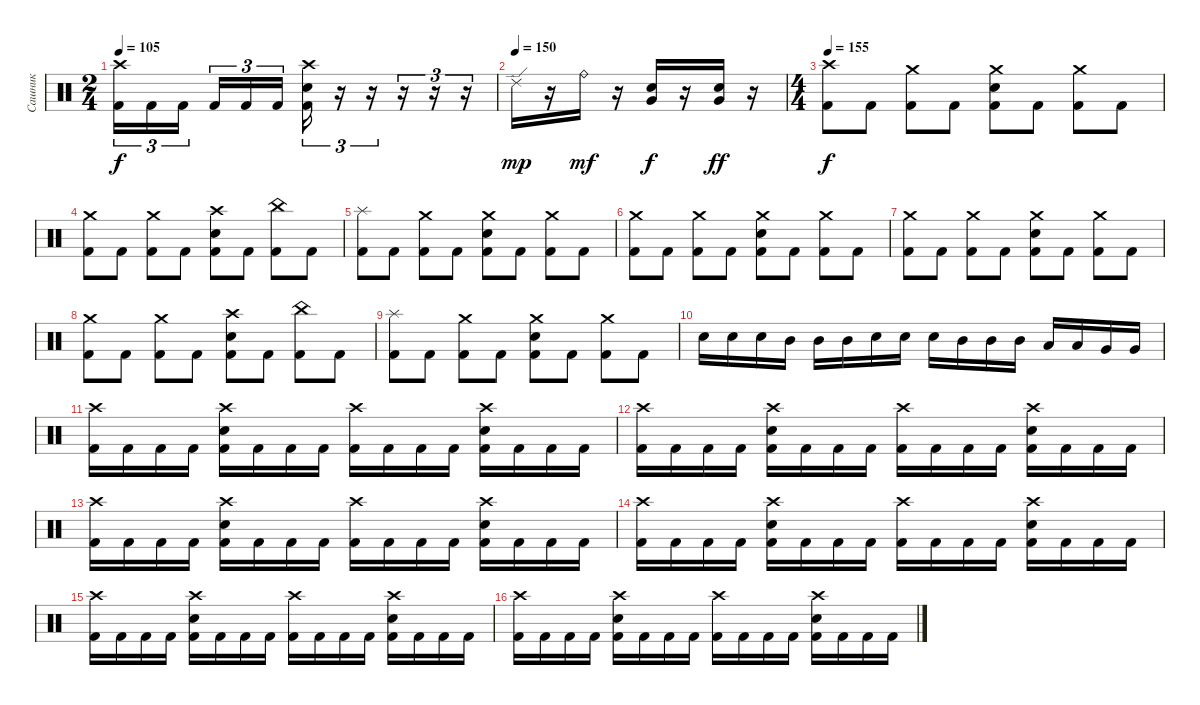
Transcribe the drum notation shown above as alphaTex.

\track ("Сашник" "Сашник") {instrument percussion}
\staff {score}
\articulation defaults
\ts (2 4)
\tempo 105
\clef neutral
\ks c
("Crash high (hit)" "Kick (hit) 2").16{tu (3 2) dy f} "Kick (hit) 2".16{tu (3 2)} "Kick (hit) 2".16{tu (3 2) beam splitsecondary} "Kick (hit) 2".16{tu (3 2)} "Kick (hit) 2".16{tu (3 2)} "Kick (hit) 2".16{tu (3 2)} ("Crash high (hit)" "Electric Snare (hit)" "Kick (hit) 2").16{tu (3 2)} r.16{tu (3 2)} r.16{tu (3 2)} r.16{tu (3 2)} r.16{tu (3 2)} r.16{tu (3 2)} |
\tempo (150)
"Ride (edge) 2".16{dy mp} r.16 "Ride (bell)".16{dy mf} r.16 ("Very Low Tom (hit)" "Electric Snare (hit)").16{dy f} r.16 ("Very Low Tom (hit)" "Electric Snare (hit)").16{dy ff} r.16 |
\ts (4 4)
\tempo 155
("Crash high (hit)" "Kick (hit) 2").8{dy f} "Kick (hit) 2".8 ("Crash medium (hit)" "Kick (hit) 2").8 "Kick (hit) 2".8 ("Crash medium (hit)" "Electric Snare (hit)" "Kick (hit) 2").8 "Kick (hit) 2".8 ("Crash medium (hit)" "Kick (hit) 2").8 "Kick (hit) 2".8 |
("Crash medium (hit)" "Kick (hit) 2").8 "Kick (hit) 2".8 ("Crash medium (hit)" "Kick (hit) 2").8 "Kick (hit) 2".8 ("Crash high (hit)" "Electric Snare (hit)" "Kick (hit) 2").8 "Kick (hit) 2".8 ("China (hit)" "Kick (hit) 2").8 "Kick (hit) 2".8 |
("Splash (hit)" "Kick (hit) 2").8 "Kick (hit) 2".8 ("Crash medium (hit)" "Kick (hit) 2").8 "Kick (hit) 2".8 ("Crash medium (hit)" "Electric Snare (hit)" "Kick (hit) 2").8 "Kick (hit) 2".8 ("Crash medium (hit)" "Kick (hit) 2").8 "Kick (hit) 2".8 |
("Crash medium (hit)" "Kick (hit) 2").8 "Kick (hit) 2".8 ("Crash medium (hit)" "Kick (hit) 2").8 "Kick (hit) 2".8 ("Crash medium (hit)" "Electric Snare (hit)" "Kick (hit) 2").8 "Kick (hit) 2".8 ("Crash medium (hit)" "Kick (hit) 2").8 "Kick (hit) 2".8 |
("Crash medium (hit)" "Kick (hit) 2").8 "Kick (hit) 2".8 ("Crash medium (hit)" "Kick (hit) 2").8 "Kick (hit) 2".8 ("Crash medium (hit)" "Electric Snare (hit)" "Kick (hit) 2").8 "Kick (hit) 2".8 ("Crash medium (hit)" "Kick (hit) 2").8 "Kick (hit) 2".8 |
("Crash medium (hit)" "Kick (hit) 2").8 "Kick (hit) 2".8 ("Crash medium (hit)" "Kick (hit) 2").8 "Kick (hit) 2".8 ("Crash high (hit)" "Electric Snare (hit)" "Kick (hit) 2").8 "Kick (hit) 2".8 ("China (hit)" "Kick (hit) 2").8 "Kick (hit) 2".8 |
("Splash (hit)" "Kick (hit) 2").8 "Kick (hit) 2".8 ("Crash medium (hit)" "Kick (hit) 2").8 "Kick (hit) 2".8 ("Crash medium (hit)" "Electric Snare (hit)" "Kick (hit) 2").8 "Kick (hit) 2".8 ("Crash medium (hit)" "Kick (hit) 2").8 "Kick (hit) 2".8 |
"Electric Snare (hit)".16 "Electric Snare (hit)".16 "Electric Snare (hit)".16 "Mid Tom (hit)".16 "Mid Tom (hit)".16 "Mid Tom (hit)".16 "Electric Snare (hit)".16 "Electric Snare (hit)".16 "Electric Snare (hit)".16 "Mid Tom (hit)".16 "Mid Tom (hit)".16 "Mid Tom (hit)".16 "Low Tom (hit)".16 "Low Tom (hit)".16 "Very Low Tom (hit)".16 "Very Low Tom (hit)".16 |
("Crash high (hit)" "Kick (hit) 2").16 "Kick (hit) 2".16 "Kick (hit) 2".16 "Kick (hit) 2".16 ("Crash high (hit)" "Electric Snare (hit)" "Kick (hit) 2").16 "Kick (hit) 2".16 "Kick (hit) 2".16 "Kick (hit) 2".16 ("Crash high (hit)" "Kick (hit) 2").16 "Kick (hit) 2".16 "Kick (hit) 2".16 "Kick (hit) 2".16 ("Crash high (hit)" "Electric Snare (hit)" "Kick (hit) 2").16 "Kick (hit) 2".16 "Kick (hit) 2".16 "Kick (hit) 2".16 |
("Crash high (hit)" "Kick (hit) 2").16 "Kick (hit) 2".16 "Kick (hit) 2".16 "Kick (hit) 2".16 ("Crash high (hit)" "Electric Snare (hit)" "Kick (hit) 2").16 "Kick (hit) 2".16 "Kick (hit) 2".16 "Kick (hit) 2".16 ("Crash high (hit)" "Kick (hit) 2").16 "Kick (hit) 2".16 "Kick (hit) 2".16 "Kick (hit) 2".16 ("Crash high (hit)" "Electric Snare (hit)" "Kick (hit) 2").16 "Kick (hit) 2".16 "Kick (hit) 2".16 "Kick (hit) 2".16 |
("Crash high (hit)" "Kick (hit) 2").16 "Kick (hit) 2".16 "Kick (hit) 2".16 "Kick (hit) 2".16 ("Crash high (hit)" "Electric Snare (hit)" "Kick (hit) 2").16 "Kick (hit) 2".16 "Kick (hit) 2".16 "Kick (hit) 2".16 ("Crash high (hit)" "Kick (hit) 2").16 "Kick (hit) 2".16 "Kick (hit) 2".16 "Kick (hit) 2".16 ("Crash high (hit)" "Electric Snare (hit)" "Kick (hit) 2").16 "Kick (hit) 2".16 "Kick (hit) 2".16 "Kick (hit) 2".16 |
("Crash high (hit)" "Kick (hit) 2").16 "Kick (hit) 2".16 "Kick (hit) 2".16 "Kick (hit) 2".16 ("Crash high (hit)" "Electric Snare (hit)" "Kick (hit) 2").16 "Kick (hit) 2".16 "Kick (hit) 2".16 "Kick (hit) 2".16 ("Crash high (hit)" "Kick (hit) 2").16 "Kick (hit) 2".16 "Kick (hit) 2".16 "Kick (hit) 2".16 ("Crash high (hit)" "Electric Snare (hit)" "Kick (hit) 2").16 "Kick (hit) 2".16 "Kick (hit) 2".16 "Kick (hit) 2".16 |
("Crash high (hit)" "Kick (hit) 2").16 "Kick (hit) 2".16 "Kick (hit) 2".16 "Kick (hit) 2".16 ("Crash high (hit)" "Electric Snare (hit)" "Kick (hit) 2").16 "Kick (hit) 2".16 "Kick (hit) 2".16 "Kick (hit) 2".16 ("Crash high (hit)" "Kick (hit) 2").16 "Kick (hit) 2".16 "Kick (hit) 2".16 "Kick (hit) 2".16 ("Crash high (hit)" "Electric Snare (hit)" "Kick (hit) 2").16 "Kick (hit) 2".16 "Kick (hit) 2".16 "Kick (hit) 2".16 |
("Crash high (hit)" "Kick (hit) 2").16 "Kick (hit) 2".16 "Kick (hit) 2".16 "Kick (hit) 2".16 ("Crash high (hit)" "Electric Snare (hit)" "Kick (hit) 2").16 "Kick (hit) 2".16 "Kick (hit) 2".16 "Kick (hit) 2".16 ("Crash high (hit)" "Kick (hit) 2").16 "Kick (hit) 2".16 "Kick (hit) 2".16 "Kick (hit) 2".16 ("Crash high (hit)" "Electric Snare (hit)" "Kick (hit) 2").16 "Kick (hit) 2".16 "Kick (hit) 2".16 "Kick (hit) 2".16
